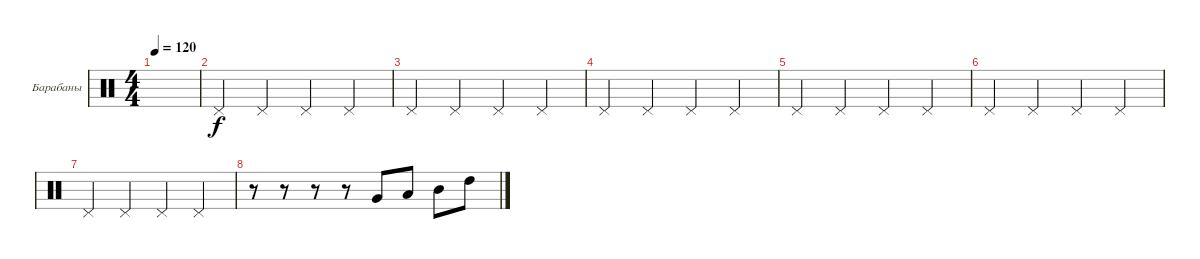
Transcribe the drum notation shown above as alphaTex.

\defaultSystemsLayout 4
\bracketExtendMode groupsimilarinstruments
\firstSystemTrackNameOrientation horizontal
\otherSystemsTrackNameOrientation horizontal
\track ("Ударная установка" "Барабаны") {instrument percussion}
\staff {score}
\articulation defaults
\ts (4 4)
\tempo 120
\clef neutral
\ks c
|
"Pedal Hi-Hat (hit)".4 "Pedal Hi-Hat (hit)".4 "Pedal Hi-Hat (hit)".4 "Pedal Hi-Hat (hit)".4 |
"Pedal Hi-Hat (hit)".4 "Pedal Hi-Hat (hit)".4 "Pedal Hi-Hat (hit)".4 "Pedal Hi-Hat (hit)".4 |
"Pedal Hi-Hat (hit)".4 "Pedal Hi-Hat (hit)".4 "Pedal Hi-Hat (hit)".4 "Pedal Hi-Hat (hit)".4 |
"Pedal Hi-Hat (hit)".4 "Pedal Hi-Hat (hit)".4 "Pedal Hi-Hat (hit)".4 "Pedal Hi-Hat (hit)".4 |
"Pedal Hi-Hat (hit)".4 "Pedal Hi-Hat (hit)".4 "Pedal Hi-Hat (hit)".4 "Pedal Hi-Hat (hit)".4 |
"Pedal Hi-Hat (hit)".4 "Pedal Hi-Hat (hit)".4 "Pedal Hi-Hat (hit)".4 "Pedal Hi-Hat (hit)".4 |
r.8 r.8 r.8 r.8 "Very Low Tom (hit)".8 "Low Tom (hit)".8 "Mid Tom (hit)".8 "High Tom (hit)".8
